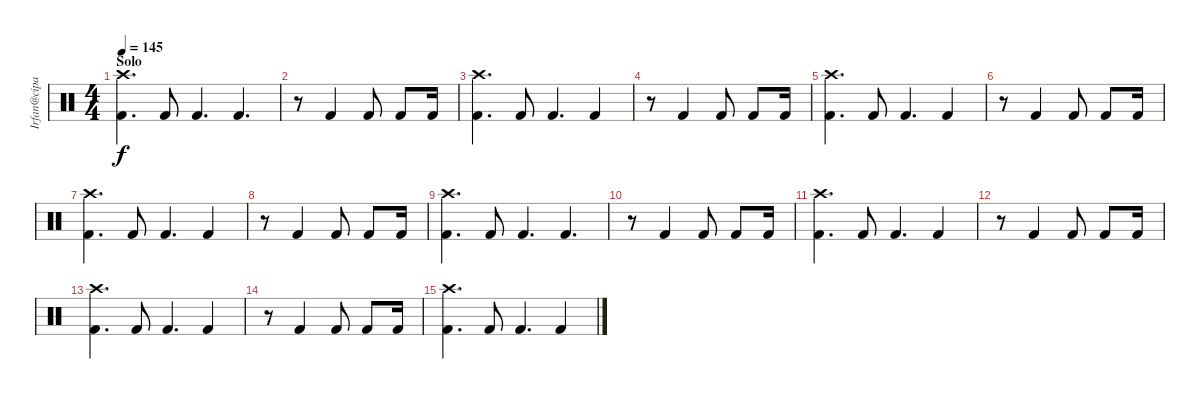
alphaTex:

\track ("Irfan@cipan" "Irfan@cipa") {instrument percussion}
\staff {score}
\articulation defaults
\ts (4 4)
\section ("" "Solo")
\tempo 145
\clef neutral
\ks c
("Crash high (hit)" "Kick (hit) 2").4{d dy f} "Kick (hit) 2".8 "Kick (hit) 2".4{d} "Kick (hit) 2".4{d} |
r.8 "Kick (hit) 2".4 "Kick (hit) 2".8 "Kick (hit) 2".8 "Kick (hit) 2".16 |
("Crash high (hit)" "Kick (hit) 2").4{d} "Kick (hit) 2".8 "Kick (hit) 2".4{d} "Kick (hit) 2".4 |
r.8 "Kick (hit) 2".4 "Kick (hit) 2".8 "Kick (hit) 2".8 "Kick (hit) 2".16 |
("Crash high (hit)" "Kick (hit) 2").4{d} "Kick (hit) 2".8 "Kick (hit) 2".4{d} "Kick (hit) 2".4 |
r.8 "Kick (hit) 2".4 "Kick (hit) 2".8 "Kick (hit) 2".8 "Kick (hit) 2".16 |
("Crash high (hit)" "Kick (hit) 2").4{d} "Kick (hit) 2".8 "Kick (hit) 2".4{d} "Kick (hit) 2".4 |
r.8 "Kick (hit) 2".4 "Kick (hit) 2".8 "Kick (hit) 2".8 "Kick (hit) 2".16 |
("Crash high (hit)" "Kick (hit) 2").4{d} "Kick (hit) 2".8 "Kick (hit) 2".4{d} "Kick (hit) 2".4{d} |
r.8 "Kick (hit) 2".4 "Kick (hit) 2".8 "Kick (hit) 2".8 "Kick (hit) 2".16 |
("Crash high (hit)" "Kick (hit) 2").4{d} "Kick (hit) 2".8 "Kick (hit) 2".4{d} "Kick (hit) 2".4 |
r.8 "Kick (hit) 2".4 "Kick (hit) 2".8 "Kick (hit) 2".8 "Kick (hit) 2".16 |
("Crash high (hit)" "Kick (hit) 2").4{d} "Kick (hit) 2".8 "Kick (hit) 2".4{d} "Kick (hit) 2".4 |
r.8 "Kick (hit) 2".4 "Kick (hit) 2".8 "Kick (hit) 2".8 "Kick (hit) 2".16 |
("Crash high (hit)" "Kick (hit) 2").4{d} "Kick (hit) 2".8 "Kick (hit) 2".4{d} "Kick (hit) 2".4
